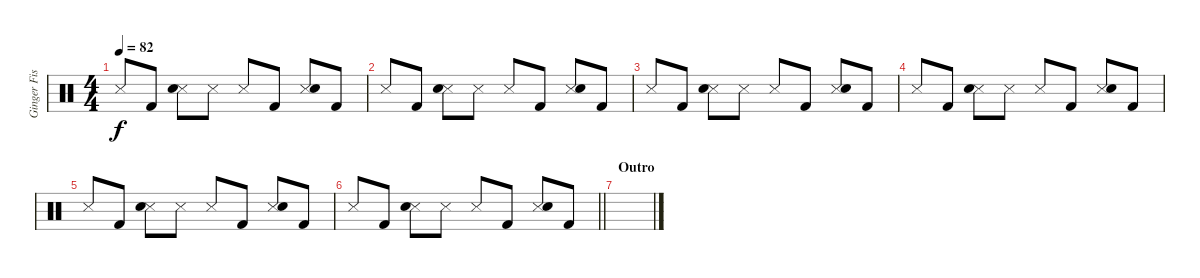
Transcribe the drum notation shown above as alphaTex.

\track ("Ginger Fish" "Ginger Fis") {instrument percussion}
\staff {score}
\articulation defaults
\ts (4 4)
\tempo 82
\clef neutral
\ks c "Metronome (hit)".8{dy f} "Kick (hit) 2".8
("Metronome (hit)" "Snare (hit) 2").8 "Metronome (hit)".8 "Metronome (hit)".8 "Kick (hit) 2".8 ("Metronome (hit)" "Snare (hit) 2").8 "Kick (hit) 2".8 |
"Metronome (hit)".8 "Kick (hit) 2".8 ("Metronome (hit)" "Snare (hit) 2").8 "Metronome (hit)".8 "Metronome (hit)".8 "Kick (hit) 2".8 ("Metronome (hit)" "Snare (hit) 2").8 "Kick (hit) 2".8 |
"Metronome (hit)".8 "Kick (hit) 2".8 ("Metronome (hit)" "Snare (hit) 2").8 "Metronome (hit)".8 "Metronome (hit)".8 "Kick (hit) 2".8 ("Metronome (hit)" "Snare (hit) 2").8 "Kick (hit) 2".8 |
"Metronome (hit)".8 "Kick (hit) 2".8 ("Metronome (hit)" "Snare (hit) 2").8 "Metronome (hit)".8 "Metronome (hit)".8 "Kick (hit) 2".8 ("Metronome (hit)" "Snare (hit) 2").8 "Kick (hit) 2".8 |
"Metronome (hit)".8 "Kick (hit) 2".8 ("Metronome (hit)" "Snare (hit) 2").8 "Metronome (hit)".8 "Metronome (hit)".8 "Kick (hit) 2".8 ("Metronome (hit)" "Snare (hit) 2").8 "Kick (hit) 2".8 |
\barLineRight lightlight "Metronome (hit)".8 "Kick (hit) 2".8
("Metronome (hit)" "Snare (hit) 2").8 "Metronome (hit)".8 "Metronome (hit)".8 "Kick (hit) 2".8 ("Metronome (hit)" "Snare (hit) 2").8 "Kick (hit) 2".8 |
\section ("" "Outro")
